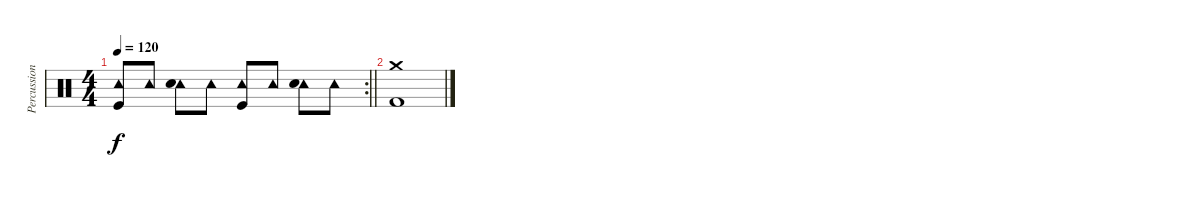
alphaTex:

\track ("Percussion" "Percussion") {instrument percussion}
\staff {score}
\articulation defaults
\rc 2
\ts (4 4)
\tempo 120
\clef neutral
\barLineRight lightlight
\ks c
("Tambourine (hit)" "Kick (hit)").8{dy f} "Tambourine (hit)".8 ("Tambourine (hit)" "Electric Snare (hit)").8 "Tambourine (hit)".8 ("Tambourine (hit)" "Kick (hit)").8 "Tambourine (hit)".8 ("Tambourine (hit)" "Electric Snare (hit)").8 "Tambourine (hit)".8 |
("Crash medium (hit)" "Kick (hit) 2").1
